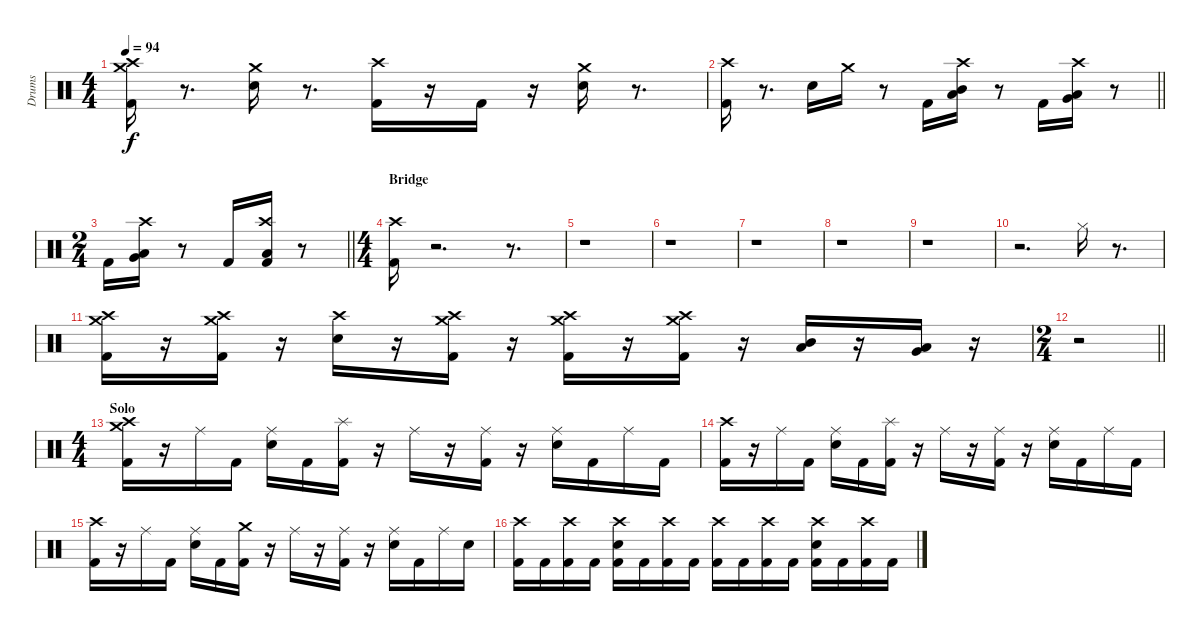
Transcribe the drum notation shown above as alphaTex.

\track ("Drums" "Drums") {instrument percussion}
\staff {score}
\articulation defaults
\ts (4 4)
\tempo 94
\clef neutral
\ks c
("Kick (hit) 2" "Crash high (hit)" "Crash medium (hit)").16{dy f} r.8{d} ("Snare (hit) 2" "Crash medium (hit)").16 r.8{d} ("Kick (hit) 2" "Crash high (hit)").16 r.16 "Kick (hit) 2".16 r.16 ("Snare (hit) 2" "Crash medium (hit)").16 r.8{d} |
\barLineRight lightlight
("Kick (hit) 2" "Crash high (hit)").16 r.8{d} "Snare (hit) 2".16 "Crash medium (hit)".16 r.8 "Kick (hit) 2".16 ("Low Tom (hit)" "Mid Tom (hit)" "Crash high (hit)").16 r.8 "Kick (hit) 2".16 ("Very Low Tom (hit)" "Low Tom (hit)" "Crash high (hit)").16 r.8 |
\ts (2 4)
\barLineRight lightlight "Kick (hit) 2".16
("Low Floor Tom (hit)" "Very Low Tom (hit)" "Crash high (hit)").16 r.8 "Kick (hit) 2".16 ("Kick (hit) 2" "Low Floor Tom (hit)" "Crash high (hit)").16 r.8 |
\ts (4 4)
\section ("" "Bridge")
("Kick (hit) 2" "Crash high (hit)").16 r.2{d} r.8{d} |
r.1 |
r.1 |
r.1 |
r.1 |
r.1 |
r.2{d} "Hi-Hat (closed)".16 r.8{d} |
("Kick (hit) 2" "Crash high (hit)" "Crash medium (hit)").16 r.16 ("Kick (hit) 2" "Crash high (hit)" "Crash medium (hit)").16 r.16 ("Snare (hit) 2" "Crash high (hit)").16 r.16 ("Kick (hit) 2" "Crash high (hit)" "Crash medium (hit)").16 r.16 ("Kick (hit) 2" "Crash high (hit)" "Crash medium (hit)").16 r.16 ("Kick (hit) 2" "Crash high (hit)" "Crash medium (hit)").16 r.16 ("Low Tom (hit)" "Mid Tom (hit)").16 r.16 ("Low Floor Tom (hit)" "Very Low Tom (hit)").16 r.16 |
\ts (2 4)
\barLineRight lightlight
r.2 |
\ts (4 4)
\section ("" "Solo")
("Kick (hit) 2" "Crash high (hit)" "Crash medium (hit)").16 r.16 "Ride (middle)".16 "Kick (hit) 2".16 ("Snare (hit) 2" "Ride (middle)").16 "Kick (hit) 2".16 ("Kick (hit) 2" "Splash (hit)").16 r.16 "Ride (middle)".16 r.16 ("Kick (hit) 2" "Ride (middle)").16 r.16 ("Snare (hit) 2" "Ride (middle)").16 "Kick (hit) 2".16 "Ride (middle)".16 "Kick (hit) 2".16 |
("Kick (hit) 2" "Crash high (hit)").16 r.16 "Ride (middle)".16 "Kick (hit) 2".16 ("Snare (hit) 2" "Ride (middle)").16 "Kick (hit) 2".16 ("Kick (hit) 2" "Splash (hit)").16 r.16 "Ride (middle)".16 r.16 ("Kick (hit) 2" "Ride (middle)").16 r.16 ("Snare (hit) 2" "Ride (middle)").16 "Kick (hit) 2".16 "Ride (middle)".16 "Kick (hit) 2".16 |
("Kick (hit) 2" "Crash high (hit)").16 r.16 "Ride (middle)".16 "Kick (hit) 2".16 ("Snare (hit) 2" "Ride (middle)").16 "Kick (hit) 2".16 ("Kick (hit) 2" "Crash medium (hit)").16 r.16 "Ride (middle)".16 r.16 ("Kick (hit) 2" "Ride (middle)").16 r.16 ("Snare (hit) 2" "Ride (middle)").16 "Kick (hit) 2".16 "Ride (middle)".16 "Snare (hit) 2".16 |
("Kick (hit) 2" "Crash high (hit)").16 "Kick (hit) 2".16 ("Kick (hit) 2" "Crash high (hit)").16 "Kick (hit) 2".16 ("Kick (hit) 2" "Snare (hit) 2" "Crash high (hit)").16 "Kick (hit) 2".16 ("Kick (hit) 2" "Crash high (hit)").16 "Kick (hit) 2".16 ("Kick (hit) 2" "Crash high (hit)").16 "Kick (hit) 2".16 ("Kick (hit) 2" "Crash high (hit)").16 "Kick (hit) 2".16 ("Kick (hit) 2" "Snare (hit) 2" "Crash high (hit)").16 "Kick (hit) 2".16 ("Kick (hit) 2" "Crash high (hit)").16 "Kick (hit) 2".16
